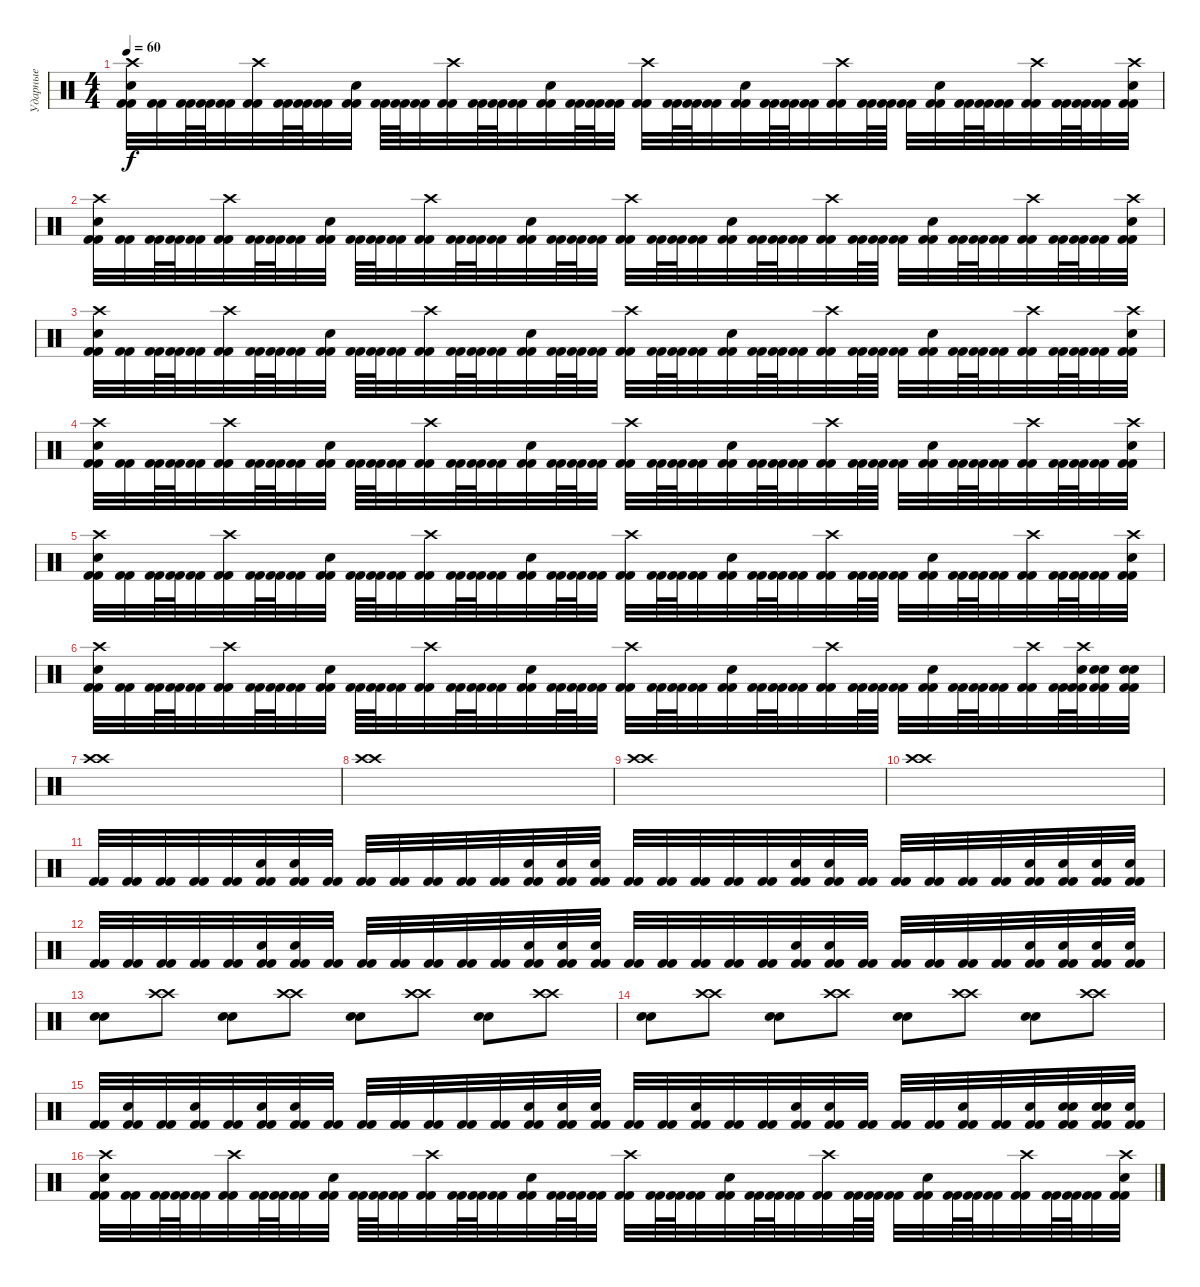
\track ("Ударные" "Ударные") {instrument percussion}
\staff {score}
\articulation defaults
\ts (4 4)
\tempo 60
\clef neutral
\ks c
("Kick (hit) 2" "Kick (hit) 2" "Electric Snare (hit)" "Crash high (hit)").32{dy f} ("Kick (hit) 2" "Kick (hit) 2").32 ("Kick (hit) 2" "Kick (hit) 2").64 ("Kick (hit) 2" "Kick (hit) 2").64 ("Kick (hit) 2" "Kick (hit) 2").32 ("Kick (hit) 2" "Kick (hit) 2" "Crash high (hit)").32 ("Kick (hit) 2" "Kick (hit) 2").64 ("Kick (hit) 2" "Kick (hit) 2").64 ("Kick (hit) 2" "Kick (hit) 2").32 ("Kick (hit) 2" "Kick (hit) 2" "Electric Snare (hit)").32 ("Kick (hit) 2" "Kick (hit) 2").64 ("Kick (hit) 2" "Kick (hit) 2").64 ("Kick (hit) 2" "Kick (hit) 2").32 ("Kick (hit) 2" "Kick (hit) 2" "Crash high (hit)").32 ("Kick (hit) 2" "Kick (hit) 2").64 ("Kick (hit) 2" "Kick (hit) 2").64 ("Kick (hit) 2" "Kick (hit) 2").32 ("Kick (hit) 2" "Kick (hit) 2" "Electric Snare (hit)").32 ("Kick (hit) 2" "Kick (hit) 2").64 ("Kick (hit) 2" "Kick (hit) 2").64 ("Kick (hit) 2" "Kick (hit) 2").32 ("Kick (hit) 2" "Kick (hit) 2" "Crash high (hit)").32 ("Kick (hit) 2" "Kick (hit) 2").64 ("Kick (hit) 2" "Kick (hit) 2").64 ("Kick (hit) 2" "Kick (hit) 2").32 ("Kick (hit) 2" "Kick (hit) 2" "Electric Snare (hit)").32 ("Kick (hit) 2" "Kick (hit) 2").64 ("Kick (hit) 2" "Kick (hit) 2").64 ("Kick (hit) 2" "Kick (hit) 2").32 ("Kick (hit) 2" "Kick (hit) 2" "Crash high (hit)").32 ("Kick (hit) 2" "Kick (hit) 2").64 ("Kick (hit) 2" "Kick (hit) 2").64 ("Kick (hit) 2" "Kick (hit) 2").32 ("Kick (hit) 2" "Kick (hit) 2" "Electric Snare (hit)").32 ("Kick (hit) 2" "Kick (hit) 2").64 ("Kick (hit) 2" "Kick (hit) 2").64 ("Kick (hit) 2" "Kick (hit) 2").32 ("Kick (hit) 2" "Kick (hit) 2" "Crash high (hit)").32 ("Kick (hit) 2" "Kick (hit) 2").64 ("Kick (hit) 2" "Kick (hit) 2").64 ("Kick (hit) 2" "Kick (hit) 2").32 ("Kick (hit) 2" "Kick (hit) 2" "Electric Snare (hit)" "Crash high (hit)").32 |
("Kick (hit) 2" "Kick (hit) 2" "Electric Snare (hit)" "Crash high (hit)").32 ("Kick (hit) 2" "Kick (hit) 2").32 ("Kick (hit) 2" "Kick (hit) 2").64 ("Kick (hit) 2" "Kick (hit) 2").64 ("Kick (hit) 2" "Kick (hit) 2").32 ("Kick (hit) 2" "Kick (hit) 2" "Crash high (hit)").32 ("Kick (hit) 2" "Kick (hit) 2").64 ("Kick (hit) 2" "Kick (hit) 2").64 ("Kick (hit) 2" "Kick (hit) 2").32 ("Kick (hit) 2" "Kick (hit) 2" "Electric Snare (hit)").32 ("Kick (hit) 2" "Kick (hit) 2").64 ("Kick (hit) 2" "Kick (hit) 2").64 ("Kick (hit) 2" "Kick (hit) 2").32 ("Kick (hit) 2" "Kick (hit) 2" "Crash high (hit)").32 ("Kick (hit) 2" "Kick (hit) 2").64 ("Kick (hit) 2" "Kick (hit) 2").64 ("Kick (hit) 2" "Kick (hit) 2").32 ("Kick (hit) 2" "Kick (hit) 2" "Electric Snare (hit)").32 ("Kick (hit) 2" "Kick (hit) 2").64 ("Kick (hit) 2" "Kick (hit) 2").64 ("Kick (hit) 2" "Kick (hit) 2").32 ("Kick (hit) 2" "Kick (hit) 2" "Crash high (hit)").32 ("Kick (hit) 2" "Kick (hit) 2").64 ("Kick (hit) 2" "Kick (hit) 2").64 ("Kick (hit) 2" "Kick (hit) 2").32 ("Kick (hit) 2" "Kick (hit) 2" "Electric Snare (hit)").32 ("Kick (hit) 2" "Kick (hit) 2").64 ("Kick (hit) 2" "Kick (hit) 2").64 ("Kick (hit) 2" "Kick (hit) 2").32 ("Kick (hit) 2" "Kick (hit) 2" "Crash high (hit)").32 ("Kick (hit) 2" "Kick (hit) 2").64 ("Kick (hit) 2" "Kick (hit) 2").64 ("Kick (hit) 2" "Kick (hit) 2").32 ("Kick (hit) 2" "Kick (hit) 2" "Electric Snare (hit)").32 ("Kick (hit) 2" "Kick (hit) 2").64 ("Kick (hit) 2" "Kick (hit) 2").64 ("Kick (hit) 2" "Kick (hit) 2").32 ("Kick (hit) 2" "Kick (hit) 2" "Crash high (hit)").32 ("Kick (hit) 2" "Kick (hit) 2").64 ("Kick (hit) 2" "Kick (hit) 2").64 ("Kick (hit) 2" "Kick (hit) 2").32 ("Kick (hit) 2" "Kick (hit) 2" "Electric Snare (hit)" "Crash high (hit)").32 |
("Kick (hit) 2" "Kick (hit) 2" "Electric Snare (hit)" "Crash high (hit)").32 ("Kick (hit) 2" "Kick (hit) 2").32 ("Kick (hit) 2" "Kick (hit) 2").64 ("Kick (hit) 2" "Kick (hit) 2").64 ("Kick (hit) 2" "Kick (hit) 2").32 ("Kick (hit) 2" "Kick (hit) 2" "Crash high (hit)").32 ("Kick (hit) 2" "Kick (hit) 2").64 ("Kick (hit) 2" "Kick (hit) 2").64 ("Kick (hit) 2" "Kick (hit) 2").32 ("Kick (hit) 2" "Kick (hit) 2" "Electric Snare (hit)").32 ("Kick (hit) 2" "Kick (hit) 2").64 ("Kick (hit) 2" "Kick (hit) 2").64 ("Kick (hit) 2" "Kick (hit) 2").32 ("Kick (hit) 2" "Kick (hit) 2" "Crash high (hit)").32 ("Kick (hit) 2" "Kick (hit) 2").64 ("Kick (hit) 2" "Kick (hit) 2").64 ("Kick (hit) 2" "Kick (hit) 2").32 ("Kick (hit) 2" "Kick (hit) 2" "Electric Snare (hit)").32 ("Kick (hit) 2" "Kick (hit) 2").64 ("Kick (hit) 2" "Kick (hit) 2").64 ("Kick (hit) 2" "Kick (hit) 2").32 ("Kick (hit) 2" "Kick (hit) 2" "Crash high (hit)").32 ("Kick (hit) 2" "Kick (hit) 2").64 ("Kick (hit) 2" "Kick (hit) 2").64 ("Kick (hit) 2" "Kick (hit) 2").32 ("Kick (hit) 2" "Kick (hit) 2" "Electric Snare (hit)").32 ("Kick (hit) 2" "Kick (hit) 2").64 ("Kick (hit) 2" "Kick (hit) 2").64 ("Kick (hit) 2" "Kick (hit) 2").32 ("Kick (hit) 2" "Kick (hit) 2" "Crash high (hit)").32 ("Kick (hit) 2" "Kick (hit) 2").64 ("Kick (hit) 2" "Kick (hit) 2").64 ("Kick (hit) 2" "Kick (hit) 2").32 ("Kick (hit) 2" "Kick (hit) 2" "Electric Snare (hit)").32 ("Kick (hit) 2" "Kick (hit) 2").64 ("Kick (hit) 2" "Kick (hit) 2").64 ("Kick (hit) 2" "Kick (hit) 2").32 ("Kick (hit) 2" "Kick (hit) 2" "Crash high (hit)").32 ("Kick (hit) 2" "Kick (hit) 2").64 ("Kick (hit) 2" "Kick (hit) 2").64 ("Kick (hit) 2" "Kick (hit) 2").32 ("Kick (hit) 2" "Kick (hit) 2" "Electric Snare (hit)" "Crash high (hit)").32 |
("Kick (hit) 2" "Kick (hit) 2" "Electric Snare (hit)" "Crash high (hit)").32 ("Kick (hit) 2" "Kick (hit) 2").32 ("Kick (hit) 2" "Kick (hit) 2").64 ("Kick (hit) 2" "Kick (hit) 2").64 ("Kick (hit) 2" "Kick (hit) 2").32 ("Kick (hit) 2" "Kick (hit) 2" "Crash high (hit)").32 ("Kick (hit) 2" "Kick (hit) 2").64 ("Kick (hit) 2" "Kick (hit) 2").64 ("Kick (hit) 2" "Kick (hit) 2").32 ("Kick (hit) 2" "Kick (hit) 2" "Electric Snare (hit)").32 ("Kick (hit) 2" "Kick (hit) 2").64 ("Kick (hit) 2" "Kick (hit) 2").64 ("Kick (hit) 2" "Kick (hit) 2").32 ("Kick (hit) 2" "Kick (hit) 2" "Crash high (hit)").32 ("Kick (hit) 2" "Kick (hit) 2").64 ("Kick (hit) 2" "Kick (hit) 2").64 ("Kick (hit) 2" "Kick (hit) 2").32 ("Kick (hit) 2" "Kick (hit) 2" "Electric Snare (hit)").32 ("Kick (hit) 2" "Kick (hit) 2").64 ("Kick (hit) 2" "Kick (hit) 2").64 ("Kick (hit) 2" "Kick (hit) 2").32 ("Kick (hit) 2" "Kick (hit) 2" "Crash high (hit)").32 ("Kick (hit) 2" "Kick (hit) 2").64 ("Kick (hit) 2" "Kick (hit) 2").64 ("Kick (hit) 2" "Kick (hit) 2").32 ("Kick (hit) 2" "Kick (hit) 2" "Electric Snare (hit)").32 ("Kick (hit) 2" "Kick (hit) 2").64 ("Kick (hit) 2" "Kick (hit) 2").64 ("Kick (hit) 2" "Kick (hit) 2").32 ("Kick (hit) 2" "Kick (hit) 2" "Crash high (hit)").32 ("Kick (hit) 2" "Kick (hit) 2").64 ("Kick (hit) 2" "Kick (hit) 2").64 ("Kick (hit) 2" "Kick (hit) 2").32 ("Kick (hit) 2" "Kick (hit) 2" "Electric Snare (hit)").32 ("Kick (hit) 2" "Kick (hit) 2").64 ("Kick (hit) 2" "Kick (hit) 2").64 ("Kick (hit) 2" "Kick (hit) 2").32 ("Kick (hit) 2" "Kick (hit) 2" "Crash high (hit)").32 ("Kick (hit) 2" "Kick (hit) 2").64 ("Kick (hit) 2" "Kick (hit) 2").64 ("Kick (hit) 2" "Kick (hit) 2").32 ("Kick (hit) 2" "Kick (hit) 2" "Electric Snare (hit)" "Crash high (hit)").32 |
("Kick (hit) 2" "Kick (hit) 2" "Electric Snare (hit)" "Crash high (hit)").32 ("Kick (hit) 2" "Kick (hit) 2").32 ("Kick (hit) 2" "Kick (hit) 2").64 ("Kick (hit) 2" "Kick (hit) 2").64 ("Kick (hit) 2" "Kick (hit) 2").32 ("Kick (hit) 2" "Kick (hit) 2" "Crash high (hit)").32 ("Kick (hit) 2" "Kick (hit) 2").64 ("Kick (hit) 2" "Kick (hit) 2").64 ("Kick (hit) 2" "Kick (hit) 2").32 ("Kick (hit) 2" "Kick (hit) 2" "Electric Snare (hit)").32 ("Kick (hit) 2" "Kick (hit) 2").64 ("Kick (hit) 2" "Kick (hit) 2").64 ("Kick (hit) 2" "Kick (hit) 2").32 ("Kick (hit) 2" "Kick (hit) 2" "Crash high (hit)").32 ("Kick (hit) 2" "Kick (hit) 2").64 ("Kick (hit) 2" "Kick (hit) 2").64 ("Kick (hit) 2" "Kick (hit) 2").32 ("Kick (hit) 2" "Kick (hit) 2" "Electric Snare (hit)").32 ("Kick (hit) 2" "Kick (hit) 2").64 ("Kick (hit) 2" "Kick (hit) 2").64 ("Kick (hit) 2" "Kick (hit) 2").32 ("Kick (hit) 2" "Kick (hit) 2" "Crash high (hit)").32 ("Kick (hit) 2" "Kick (hit) 2").64 ("Kick (hit) 2" "Kick (hit) 2").64 ("Kick (hit) 2" "Kick (hit) 2").32 ("Kick (hit) 2" "Kick (hit) 2" "Electric Snare (hit)").32 ("Kick (hit) 2" "Kick (hit) 2").64 ("Kick (hit) 2" "Kick (hit) 2").64 ("Kick (hit) 2" "Kick (hit) 2").32 ("Kick (hit) 2" "Kick (hit) 2" "Crash high (hit)").32 ("Kick (hit) 2" "Kick (hit) 2").64 ("Kick (hit) 2" "Kick (hit) 2").64 ("Kick (hit) 2" "Kick (hit) 2").32 ("Kick (hit) 2" "Kick (hit) 2" "Electric Snare (hit)").32 ("Kick (hit) 2" "Kick (hit) 2").64 ("Kick (hit) 2" "Kick (hit) 2").64 ("Kick (hit) 2" "Kick (hit) 2").32 ("Kick (hit) 2" "Kick (hit) 2" "Crash high (hit)").32 ("Kick (hit) 2" "Kick (hit) 2").64 ("Kick (hit) 2" "Kick (hit) 2").64 ("Kick (hit) 2" "Kick (hit) 2").32 ("Kick (hit) 2" "Kick (hit) 2" "Electric Snare (hit)" "Crash high (hit)").32 |
("Kick (hit) 2" "Kick (hit) 2" "Electric Snare (hit)" "Crash high (hit)").32 ("Kick (hit) 2" "Kick (hit) 2").32 ("Kick (hit) 2" "Kick (hit) 2").64 ("Kick (hit) 2" "Kick (hit) 2").64 ("Kick (hit) 2" "Kick (hit) 2").32 ("Kick (hit) 2" "Kick (hit) 2" "Crash high (hit)").32 ("Kick (hit) 2" "Kick (hit) 2").64 ("Kick (hit) 2" "Kick (hit) 2").64 ("Kick (hit) 2" "Kick (hit) 2").32 ("Kick (hit) 2" "Kick (hit) 2" "Electric Snare (hit)").32 ("Kick (hit) 2" "Kick (hit) 2").64 ("Kick (hit) 2" "Kick (hit) 2").64 ("Kick (hit) 2" "Kick (hit) 2").32 ("Kick (hit) 2" "Kick (hit) 2" "Crash high (hit)").32 ("Kick (hit) 2" "Kick (hit) 2").64 ("Kick (hit) 2" "Kick (hit) 2").64 ("Kick (hit) 2" "Kick (hit) 2").32 ("Kick (hit) 2" "Kick (hit) 2" "Electric Snare (hit)").32 ("Kick (hit) 2" "Kick (hit) 2").64 ("Kick (hit) 2" "Kick (hit) 2").64 ("Kick (hit) 2" "Kick (hit) 2").32 ("Kick (hit) 2" "Kick (hit) 2" "Crash high (hit)").32 ("Kick (hit) 2" "Kick (hit) 2").64 ("Kick (hit) 2" "Kick (hit) 2").64 ("Kick (hit) 2" "Kick (hit) 2").32 ("Kick (hit) 2" "Kick (hit) 2" "Electric Snare (hit)").32 ("Kick (hit) 2" "Kick (hit) 2").64 ("Kick (hit) 2" "Kick (hit) 2").64 ("Kick (hit) 2" "Kick (hit) 2").32 ("Kick (hit) 2" "Kick (hit) 2" "Crash high (hit)").32 ("Kick (hit) 2" "Kick (hit) 2").64 ("Kick (hit) 2" "Kick (hit) 2").64 ("Kick (hit) 2" "Kick (hit) 2").32 ("Kick (hit) 2" "Kick (hit) 2" "Electric Snare (hit)").32 ("Kick (hit) 2" "Kick (hit) 2").64 ("Kick (hit) 2" "Kick (hit) 2").64 ("Kick (hit) 2" "Kick (hit) 2").32 ("Kick (hit) 2" "Kick (hit) 2" "Crash high (hit)").32 ("Kick (hit) 2" "Kick (hit) 2").64 ("Kick (hit) 2" "Kick (hit) 2" "Electric Snare (hit)" "Crash high (hit)").64 ("Kick (hit) 2" "Kick (hit) 2" "Electric Snare (hit)" "Electric Snare (hit)").32 ("Kick (hit) 2" "Kick (hit) 2" "Electric Snare (hit)" "Electric Snare (hit)").32 |
("Crash high (hit)" "Crash high (hit)").1 |
("Crash high (hit)" "Crash high (hit)").1 |
("Crash high (hit)" "Crash high (hit)").1 |
("Crash high (hit)" "Crash high (hit)").1 |
("Kick (hit) 2" "Kick (hit) 2").32 ("Kick (hit) 2" "Kick (hit) 2").32 ("Kick (hit) 2" "Kick (hit) 2").32 ("Kick (hit) 2" "Kick (hit) 2").32 ("Kick (hit) 2" "Kick (hit) 2").32 ("Kick (hit) 2" "Kick (hit) 2" "Electric Snare (hit)").32 ("Kick (hit) 2" "Kick (hit) 2" "Electric Snare (hit)").32 ("Kick (hit) 2" "Kick (hit) 2").32 ("Kick (hit) 2" "Kick (hit) 2").32 ("Kick (hit) 2" "Kick (hit) 2").32 ("Kick (hit) 2" "Kick (hit) 2").32 ("Kick (hit) 2" "Kick (hit) 2").32 ("Kick (hit) 2" "Kick (hit) 2").32 ("Kick (hit) 2" "Kick (hit) 2" "Electric Snare (hit)").32 ("Kick (hit) 2" "Kick (hit) 2" "Electric Snare (hit)").32 ("Kick (hit) 2" "Kick (hit) 2" "Electric Snare (hit)").32 ("Kick (hit) 2" "Kick (hit) 2").32 ("Kick (hit) 2" "Kick (hit) 2").32 ("Kick (hit) 2" "Kick (hit) 2").32 ("Kick (hit) 2" "Kick (hit) 2").32 ("Kick (hit) 2" "Kick (hit) 2").32 ("Kick (hit) 2" "Kick (hit) 2" "Electric Snare (hit)").32 ("Kick (hit) 2" "Kick (hit) 2" "Electric Snare (hit)").32 ("Kick (hit) 2" "Kick (hit) 2").32 ("Kick (hit) 2" "Kick (hit) 2").32 ("Kick (hit) 2" "Kick (hit) 2").32 ("Kick (hit) 2" "Kick (hit) 2").32 ("Kick (hit) 2" "Kick (hit) 2").32 ("Kick (hit) 2" "Kick (hit) 2" "Electric Snare (hit)").32 ("Kick (hit) 2" "Kick (hit) 2" "Electric Snare (hit)").32 ("Kick (hit) 2" "Kick (hit) 2" "Electric Snare (hit)").32 ("Kick (hit) 2" "Kick (hit) 2" "Electric Snare (hit)").32 |
("Kick (hit) 2" "Kick (hit) 2").32 ("Kick (hit) 2" "Kick (hit) 2").32 ("Kick (hit) 2" "Kick (hit) 2").32 ("Kick (hit) 2" "Kick (hit) 2").32 ("Kick (hit) 2" "Kick (hit) 2").32 ("Kick (hit) 2" "Kick (hit) 2" "Electric Snare (hit)").32 ("Kick (hit) 2" "Kick (hit) 2" "Electric Snare (hit)").32 ("Kick (hit) 2" "Kick (hit) 2").32 ("Kick (hit) 2" "Kick (hit) 2").32 ("Kick (hit) 2" "Kick (hit) 2").32 ("Kick (hit) 2" "Kick (hit) 2").32 ("Kick (hit) 2" "Kick (hit) 2").32 ("Kick (hit) 2" "Kick (hit) 2").32 ("Kick (hit) 2" "Kick (hit) 2" "Electric Snare (hit)").32 ("Kick (hit) 2" "Kick (hit) 2" "Electric Snare (hit)").32 ("Kick (hit) 2" "Kick (hit) 2" "Electric Snare (hit)").32 ("Kick (hit) 2" "Kick (hit) 2").32 ("Kick (hit) 2" "Kick (hit) 2").32 ("Kick (hit) 2" "Kick (hit) 2").32 ("Kick (hit) 2" "Kick (hit) 2").32 ("Kick (hit) 2" "Kick (hit) 2").32 ("Kick (hit) 2" "Kick (hit) 2" "Electric Snare (hit)").32 ("Kick (hit) 2" "Kick (hit) 2" "Electric Snare (hit)").32 ("Kick (hit) 2" "Kick (hit) 2").32 ("Kick (hit) 2" "Kick (hit) 2").32 ("Kick (hit) 2" "Kick (hit) 2").32 ("Kick (hit) 2" "Kick (hit) 2").32 ("Kick (hit) 2" "Kick (hit) 2").32 ("Kick (hit) 2" "Kick (hit) 2" "Electric Snare (hit)").32 ("Kick (hit) 2" "Kick (hit) 2" "Electric Snare (hit)").32 ("Kick (hit) 2" "Kick (hit) 2" "Electric Snare (hit)").32 ("Kick (hit) 2" "Kick (hit) 2" "Electric Snare (hit)").32 |
("Electric Snare (hit)" "Electric Snare (hit)").8 ("Crash high (hit)" "Crash high (hit)").8 ("Electric Snare (hit)" "Electric Snare (hit)").8 ("Crash high (hit)" "Crash high (hit)").8 ("Electric Snare (hit)" "Electric Snare (hit)").8 ("Crash high (hit)" "Crash high (hit)").8 ("Electric Snare (hit)" "Electric Snare (hit)").8 ("Crash high (hit)" "Crash high (hit)").8 |
("Electric Snare (hit)" "Electric Snare (hit)").8 ("Crash high (hit)" "Crash high (hit)").8 ("Electric Snare (hit)" "Electric Snare (hit)").8 ("Crash high (hit)" "Crash high (hit)").8 ("Electric Snare (hit)" "Electric Snare (hit)").8 ("Crash high (hit)" "Crash high (hit)").8 ("Electric Snare (hit)" "Electric Snare (hit)").8 ("Crash high (hit)" "Crash high (hit)").8 |
("Kick (hit) 2" "Kick (hit) 2").32 ("Kick (hit) 2" "Kick (hit) 2" "Electric Snare (hit)").32 ("Kick (hit) 2" "Kick (hit) 2").32 ("Kick (hit) 2" "Kick (hit) 2" "Electric Snare (hit)").32 ("Kick (hit) 2" "Kick (hit) 2").32 ("Kick (hit) 2" "Kick (hit) 2" "Electric Snare (hit)").32 ("Kick (hit) 2" "Kick (hit) 2" "Electric Snare (hit)").32 ("Kick (hit) 2" "Kick (hit) 2").32 ("Kick (hit) 2" "Kick (hit) 2").32 ("Kick (hit) 2" "Kick (hit) 2").32 ("Kick (hit) 2" "Kick (hit) 2").32 ("Kick (hit) 2" "Kick (hit) 2").32 ("Kick (hit) 2" "Kick (hit) 2").32 ("Kick (hit) 2" "Kick (hit) 2" "Electric Snare (hit)").32 ("Kick (hit) 2" "Kick (hit) 2" "Electric Snare (hit)").32 ("Kick (hit) 2" "Kick (hit) 2" "Electric Snare (hit)").32 ("Kick (hit) 2" "Kick (hit) 2").32 ("Kick (hit) 2" "Kick (hit) 2").32 ("Kick (hit) 2" "Kick (hit) 2" "Electric Snare (hit)").32 ("Kick (hit) 2" "Kick (hit) 2").32 ("Kick (hit) 2" "Kick (hit) 2").32 ("Kick (hit) 2" "Kick (hit) 2" "Electric Snare (hit)").32 ("Kick (hit) 2" "Kick (hit) 2" "Electric Snare (hit)").32 ("Kick (hit) 2" "Kick (hit) 2").32 ("Kick (hit) 2" "Kick (hit) 2").32 ("Kick (hit) 2" "Kick (hit) 2").32 ("Kick (hit) 2" "Kick (hit) 2" "Electric Snare (hit)").32 ("Kick (hit) 2" "Kick (hit) 2").32 ("Kick (hit) 2" "Kick (hit) 2" "Electric Snare (hit)").32 ("Kick (hit) 2" "Kick (hit) 2" "Electric Snare (hit)" "Electric Snare (hit)").32 ("Kick (hit) 2" "Kick (hit) 2" "Electric Snare (hit)" "Electric Snare (hit)").32 ("Kick (hit) 2" "Kick (hit) 2" "Electric Snare (hit)").32 |
("Kick (hit) 2" "Kick (hit) 2" "Electric Snare (hit)" "Crash high (hit)").32 ("Kick (hit) 2" "Kick (hit) 2").32 ("Kick (hit) 2" "Kick (hit) 2").64 ("Kick (hit) 2" "Kick (hit) 2").64 ("Kick (hit) 2" "Kick (hit) 2").32 ("Kick (hit) 2" "Kick (hit) 2" "Crash high (hit)").32 ("Kick (hit) 2" "Kick (hit) 2").64 ("Kick (hit) 2" "Kick (hit) 2").64 ("Kick (hit) 2" "Kick (hit) 2").32 ("Kick (hit) 2" "Kick (hit) 2" "Electric Snare (hit)").32 ("Kick (hit) 2" "Kick (hit) 2").64 ("Kick (hit) 2" "Kick (hit) 2").64 ("Kick (hit) 2" "Kick (hit) 2").32 ("Kick (hit) 2" "Kick (hit) 2" "Crash high (hit)").32 ("Kick (hit) 2" "Kick (hit) 2").64 ("Kick (hit) 2" "Kick (hit) 2").64 ("Kick (hit) 2" "Kick (hit) 2").32 ("Kick (hit) 2" "Kick (hit) 2" "Electric Snare (hit)").32 ("Kick (hit) 2" "Kick (hit) 2").64 ("Kick (hit) 2" "Kick (hit) 2").64 ("Kick (hit) 2" "Kick (hit) 2").32 ("Kick (hit) 2" "Kick (hit) 2" "Crash high (hit)").32 ("Kick (hit) 2" "Kick (hit) 2").64 ("Kick (hit) 2" "Kick (hit) 2").64 ("Kick (hit) 2" "Kick (hit) 2").32 ("Kick (hit) 2" "Kick (hit) 2" "Electric Snare (hit)").32 ("Kick (hit) 2" "Kick (hit) 2").64 ("Kick (hit) 2" "Kick (hit) 2").64 ("Kick (hit) 2" "Kick (hit) 2").32 ("Kick (hit) 2" "Kick (hit) 2" "Crash high (hit)").32 ("Kick (hit) 2" "Kick (hit) 2").64 ("Kick (hit) 2" "Kick (hit) 2").64 ("Kick (hit) 2" "Kick (hit) 2").32 ("Kick (hit) 2" "Kick (hit) 2" "Electric Snare (hit)").32 ("Kick (hit) 2" "Kick (hit) 2").64 ("Kick (hit) 2" "Kick (hit) 2").64 ("Kick (hit) 2" "Kick (hit) 2").32 ("Kick (hit) 2" "Kick (hit) 2" "Crash high (hit)").32 ("Kick (hit) 2" "Kick (hit) 2").64 ("Kick (hit) 2" "Kick (hit) 2").64 ("Kick (hit) 2" "Kick (hit) 2").32 ("Kick (hit) 2" "Kick (hit) 2" "Electric Snare (hit)" "Crash high (hit)").32
